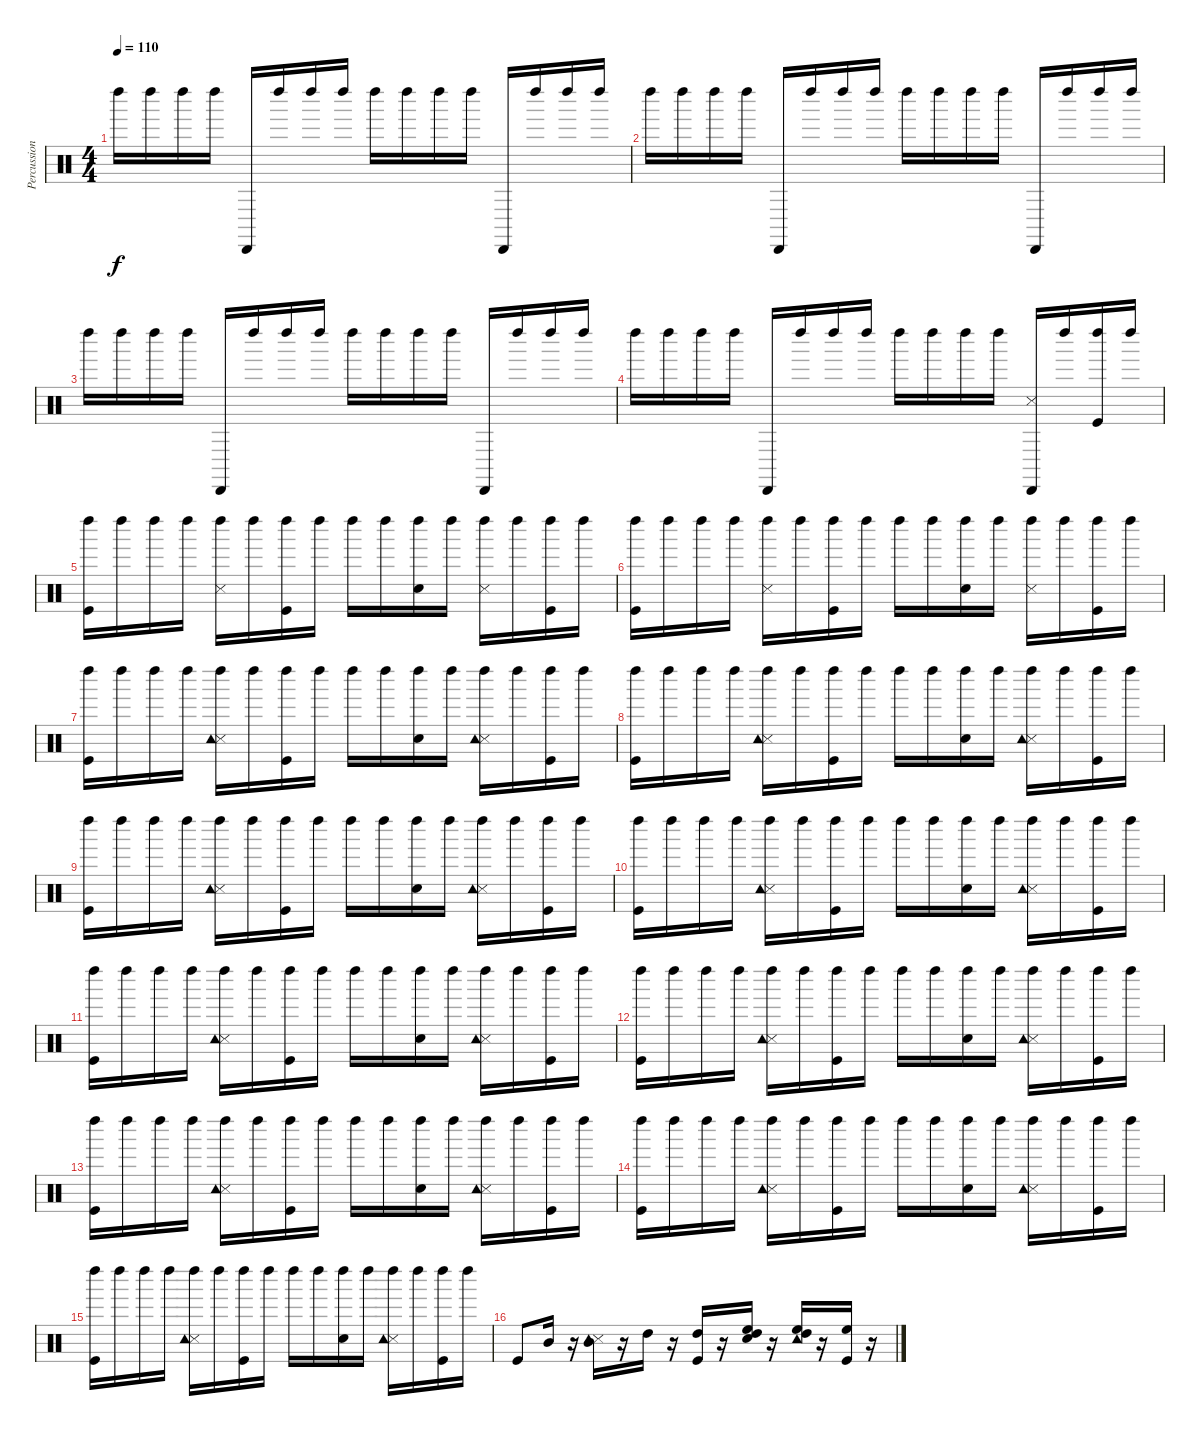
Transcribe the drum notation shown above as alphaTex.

\track ("Percussions" "Percussion") {instrument percussion}
\staff {score}
\articulation defaults
\ts (4 4)
\tempo 110
\clef neutral
\ks c "Left Maraca (hit)".16{dy f} "Left Maraca (hit)".16 "Left Maraca (hit)".16 "Left Maraca (hit)".16 "Cabasa (hit)".16 "Left Maraca (hit)".16 "Left Maraca (hit)".16 "Left Maraca (hit)".16 "Left Maraca (hit)".16 "Left Maraca (hit)".16 "Left Maraca (hit)".16 "Left Maraca (hit)".16 "Cabasa (hit)".16 "Left Maraca (hit)".16 "Left Maraca (hit)".16 "Left Maraca (hit)".16
|
"Left Maraca (hit)".16 "Left Maraca (hit)".16 "Left Maraca (hit)".16 "Left Maraca (hit)".16 "Cabasa (hit)".16 "Left Maraca (hit)".16 "Left Maraca (hit)".16 "Left Maraca (hit)".16 "Left Maraca (hit)".16 "Left Maraca (hit)".16 "Left Maraca (hit)".16 "Left Maraca (hit)".16 "Cabasa (hit)".16 "Left Maraca (hit)".16 "Left Maraca (hit)".16 "Left Maraca (hit)".16 |
"Left Maraca (hit)".16 "Left Maraca (hit)".16 "Left Maraca (hit)".16 "Left Maraca (hit)".16 "Cabasa (hit)".16 "Left Maraca (hit)".16 "Left Maraca (hit)".16 "Left Maraca (hit)".16 "Left Maraca (hit)".16 "Left Maraca (hit)".16 "Left Maraca (hit)".16 "Left Maraca (hit)".16 "Cabasa (hit)".16 "Left Maraca (hit)".16 "Left Maraca (hit)".16 "Left Maraca (hit)".16 |
"Left Maraca (hit)".16 "Left Maraca (hit)".16 "Left Maraca (hit)".16 "Left Maraca (hit)".16 "Cabasa (hit)".16 "Left Maraca (hit)".16 "Left Maraca (hit)".16 "Left Maraca (hit)".16 "Left Maraca (hit)".16 "Left Maraca (hit)".16 "Left Maraca (hit)".16 "Left Maraca (hit)".16 ("Cabasa (hit)" "Snare (side stick) 3").16 "Left Maraca (hit)".16 ("Left Maraca (hit)" "Kick (hit)").16 "Left Maraca (hit)".16 |
("Left Maraca (hit)" "Kick (hit)").16 "Left Maraca (hit)".16 "Left Maraca (hit)".16 "Left Maraca (hit)".16 ("Left Maraca (hit)" "Snare (side stick) 3").16 "Left Maraca (hit)".16 ("Left Maraca (hit)" "Kick (hit)").16 "Left Maraca (hit)".16 "Left Maraca (hit)".16 "Left Maraca (hit)".16 ("Left Maraca (hit)" "Electric Snare (hit)").16 "Left Maraca (hit)".16 ("Left Maraca (hit)" "Snare (side stick) 3").16 "Left Maraca (hit)".16 ("Left Maraca (hit)" "Kick (hit)").16 "Left Maraca (hit)".16 |
("Left Maraca (hit)" "Kick (hit)").16 "Left Maraca (hit)".16 "Left Maraca (hit)".16 "Left Maraca (hit)".16 ("Left Maraca (hit)" "Snare (side stick) 3").16 "Left Maraca (hit)".16 ("Left Maraca (hit)" "Kick (hit)").16 "Left Maraca (hit)".16 "Left Maraca (hit)".16 "Left Maraca (hit)".16 ("Left Maraca (hit)" "Electric Snare (hit)").16 "Left Maraca (hit)".16 ("Left Maraca (hit)" "Snare (side stick) 3").16 "Left Maraca (hit)".16 ("Left Maraca (hit)" "Kick (hit)").16 "Left Maraca (hit)".16 |
("Left Maraca (hit)" "Kick (hit)").16 "Left Maraca (hit)".16 "Left Maraca (hit)".16 "Left Maraca (hit)".16 ("Left Maraca (hit)" "Snare (side stick) 3" "Tambourine (hit)").16 "Left Maraca (hit)".16 ("Left Maraca (hit)" "Kick (hit)").16 "Left Maraca (hit)".16 "Left Maraca (hit)".16 "Left Maraca (hit)".16 ("Left Maraca (hit)" "Electric Snare (hit)").16 "Left Maraca (hit)".16 ("Left Maraca (hit)" "Snare (side stick) 3" "Tambourine (hit)").16 "Left Maraca (hit)".16 ("Left Maraca (hit)" "Kick (hit)").16 "Left Maraca (hit)".16 |
("Left Maraca (hit)" "Kick (hit)").16 "Left Maraca (hit)".16 "Left Maraca (hit)".16 "Left Maraca (hit)".16 ("Left Maraca (hit)" "Snare (side stick) 3" "Tambourine (hit)").16 "Left Maraca (hit)".16 ("Left Maraca (hit)" "Kick (hit)").16 "Left Maraca (hit)".16 "Left Maraca (hit)".16 "Left Maraca (hit)".16 ("Left Maraca (hit)" "Electric Snare (hit)").16 "Left Maraca (hit)".16 ("Left Maraca (hit)" "Snare (side stick) 3" "Tambourine (hit)").16 "Left Maraca (hit)".16 ("Left Maraca (hit)" "Kick (hit)").16 "Left Maraca (hit)".16 |
("Left Maraca (hit)" "Kick (hit)").16 "Left Maraca (hit)".16 "Left Maraca (hit)".16 "Left Maraca (hit)".16 ("Left Maraca (hit)" "Snare (side stick) 3" "Tambourine (hit)").16 "Left Maraca (hit)".16 ("Left Maraca (hit)" "Kick (hit)").16 "Left Maraca (hit)".16 "Left Maraca (hit)".16 "Left Maraca (hit)".16 ("Left Maraca (hit)" "Electric Snare (hit)").16 "Left Maraca (hit)".16 ("Left Maraca (hit)" "Snare (side stick) 3" "Tambourine (hit)").16 "Left Maraca (hit)".16 ("Left Maraca (hit)" "Kick (hit)").16 "Left Maraca (hit)".16 |
("Left Maraca (hit)" "Kick (hit)").16 "Left Maraca (hit)".16 "Left Maraca (hit)".16 "Left Maraca (hit)".16 ("Left Maraca (hit)" "Snare (side stick) 3" "Tambourine (hit)").16 "Left Maraca (hit)".16 ("Left Maraca (hit)" "Kick (hit)").16 "Left Maraca (hit)".16 "Left Maraca (hit)".16 "Left Maraca (hit)".16 ("Left Maraca (hit)" "Electric Snare (hit)").16 "Left Maraca (hit)".16 ("Left Maraca (hit)" "Snare (side stick) 3" "Tambourine (hit)").16 "Left Maraca (hit)".16 ("Left Maraca (hit)" "Kick (hit)").16 "Left Maraca (hit)".16 |
("Left Maraca (hit)" "Kick (hit)").16 "Left Maraca (hit)".16 "Left Maraca (hit)".16 "Left Maraca (hit)".16 ("Left Maraca (hit)" "Snare (side stick) 3" "Tambourine (hit)").16 "Left Maraca (hit)".16 ("Left Maraca (hit)" "Kick (hit)").16 "Left Maraca (hit)".16 "Left Maraca (hit)".16 "Left Maraca (hit)".16 ("Left Maraca (hit)" "Electric Snare (hit)").16 "Left Maraca (hit)".16 ("Left Maraca (hit)" "Snare (side stick) 3" "Tambourine (hit)").16 "Left Maraca (hit)".16 ("Left Maraca (hit)" "Kick (hit)").16 "Left Maraca (hit)".16 |
("Left Maraca (hit)" "Kick (hit)").16 "Left Maraca (hit)".16 "Left Maraca (hit)".16 "Left Maraca (hit)".16 ("Left Maraca (hit)" "Snare (side stick) 3" "Tambourine (hit)").16 "Left Maraca (hit)".16 ("Left Maraca (hit)" "Kick (hit)").16 "Left Maraca (hit)".16 "Left Maraca (hit)".16 "Left Maraca (hit)".16 ("Left Maraca (hit)" "Electric Snare (hit)").16 "Left Maraca (hit)".16 ("Left Maraca (hit)" "Snare (side stick) 3" "Tambourine (hit)").16 "Left Maraca (hit)".16 ("Left Maraca (hit)" "Kick (hit)").16 "Left Maraca (hit)".16 |
("Left Maraca (hit)" "Kick (hit)").16 "Left Maraca (hit)".16 "Left Maraca (hit)".16 "Left Maraca (hit)".16 ("Left Maraca (hit)" "Snare (side stick) 3" "Tambourine (hit)").16 "Left Maraca (hit)".16 ("Left Maraca (hit)" "Kick (hit)").16 "Left Maraca (hit)".16 "Left Maraca (hit)".16 "Left Maraca (hit)".16 ("Left Maraca (hit)" "Electric Snare (hit)").16 "Left Maraca (hit)".16 ("Left Maraca (hit)" "Snare (side stick) 3" "Tambourine (hit)").16 "Left Maraca (hit)".16 ("Left Maraca (hit)" "Kick (hit)").16 "Left Maraca (hit)".16 |
("Left Maraca (hit)" "Kick (hit)").16 "Left Maraca (hit)".16 "Left Maraca (hit)".16 "Left Maraca (hit)".16 ("Left Maraca (hit)" "Snare (side stick) 3" "Tambourine (hit)").16 "Left Maraca (hit)".16 ("Left Maraca (hit)" "Kick (hit)").16 "Left Maraca (hit)".16 "Left Maraca (hit)".16 "Left Maraca (hit)".16 ("Left Maraca (hit)" "Electric Snare (hit)").16 "Left Maraca (hit)".16 ("Left Maraca (hit)" "Snare (side stick) 3" "Tambourine (hit)").16 "Left Maraca (hit)".16 ("Left Maraca (hit)" "Kick (hit)").16 "Left Maraca (hit)".16 |
("Left Maraca (hit)" "Kick (hit)").16 "Left Maraca (hit)".16 "Left Maraca (hit)".16 "Left Maraca (hit)".16 ("Left Maraca (hit)" "Snare (side stick) 3" "Tambourine (hit)").16 "Left Maraca (hit)".16 ("Left Maraca (hit)" "Kick (hit)").16 "Left Maraca (hit)".16 "Left Maraca (hit)".16 "Left Maraca (hit)".16 ("Left Maraca (hit)" "Electric Snare (hit)").16 "Left Maraca (hit)".16 ("Left Maraca (hit)" "Snare (side stick) 3" "Tambourine (hit)").16 "Left Maraca (hit)".16 ("Left Maraca (hit)" "Kick (hit)").16 "Left Maraca (hit)".16 |
"Kick (hit)".8 "Mid Tom (hit)".16 r.16 ("Mid Tom (hit)" "Snare (side stick) 3" "Tambourine (hit)").16 r.16 "High Tom (hit)".16 r.16 ("High Tom (hit)" "Kick (hit)").16 r.16 ("High Floor Tom (hit)" "High Tom (hit)" "Electric Snare (hit)").16 r.16 ("High Floor Tom (hit)" "High Tom (hit)" "Tambourine (hit)").16 r.16 ("High Floor Tom (hit)" "Kick (hit)").16 r.16
